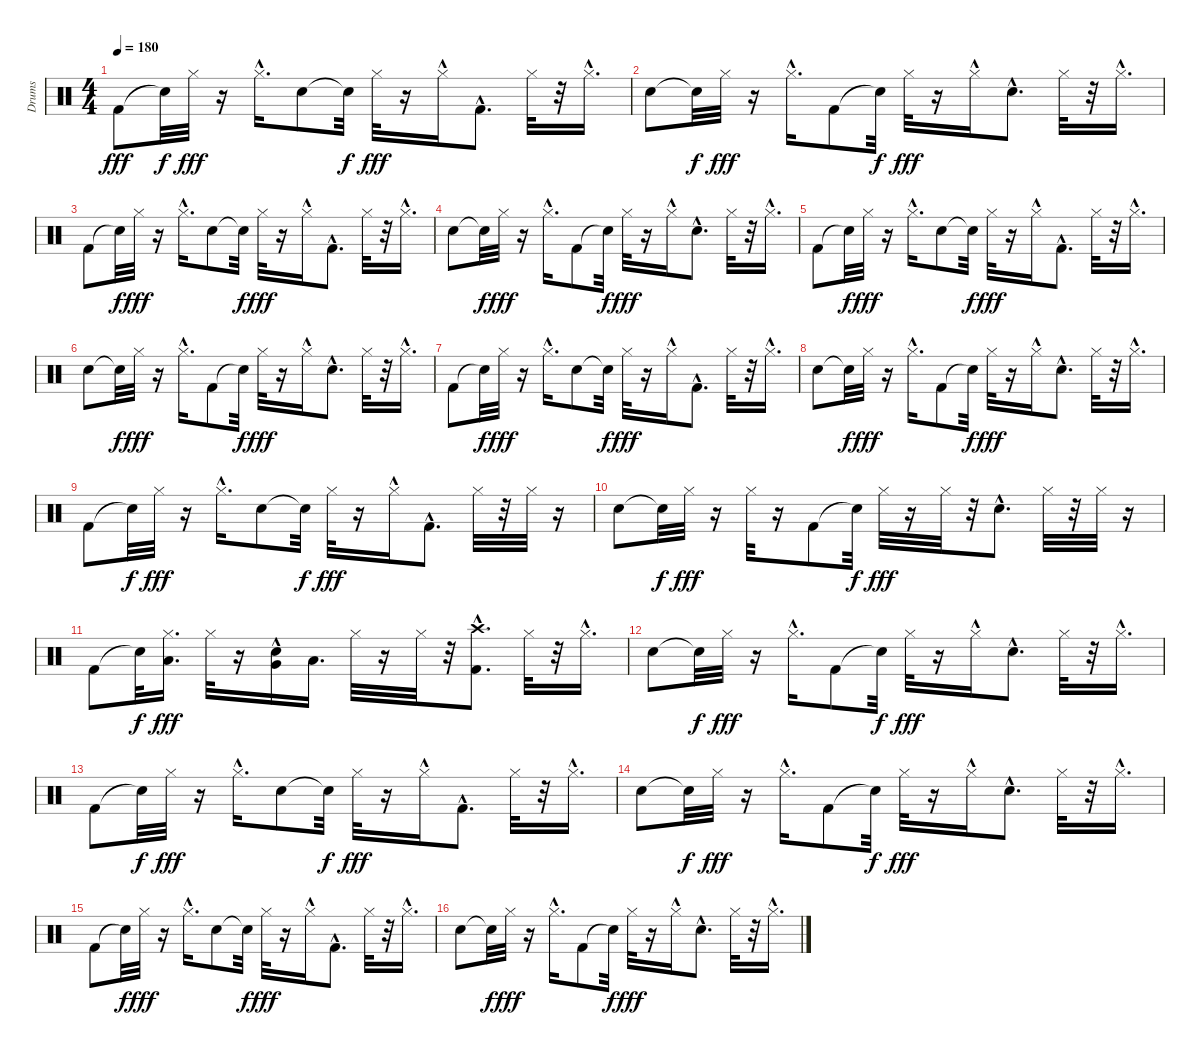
\track ("Drums" "Drums") {instrument percussion}
\staff {score}
\articulation defaults
\ts (4 4)
\tempo 180
\clef neutral
\ks c "Kick (hit) 2".8{dy fff} "Snare (hit)"{t}.32{dy f} "Hi-Hat (closed)".32{dy fff}
r.16 "Hi-Hat (closed)"{hac}.16{d} "Snare (hit) 2".8 "Snare (hit)"{t}.32{dy f} "Hi-Hat (closed)".32{dy fff} r.16 "Hi-Hat (closed)"{hac}.16 "Kick (hit) 2"{hac}.8{d} "Hi-Hat (closed)".32 r.32 "Hi-Hat (closed)"{hac}.16{d} |
"Snare (hit) 2".8 "Snare (hit)"{t}.32{dy f} "Hi-Hat (closed)".32{dy fff} r.16 "Hi-Hat (closed)"{hac}.16{d} "Kick (hit) 2".8 "Snare (hit)"{t}.32{dy f} "Hi-Hat (closed)".32{dy fff} r.16 "Hi-Hat (closed)"{hac}.16 "Snare (hit) 2"{hac}.8{d} "Hi-Hat (closed)".32 r.32 "Hi-Hat (closed)"{hac}.16{d} |
"Kick (hit) 2".8 "Snare (hit)"{t}.32{dy f} "Hi-Hat (closed)".32{dy fff} r.16 "Hi-Hat (closed)"{hac}.16{d} "Snare (hit) 2".8 "Snare (hit)"{t}.32{dy f} "Hi-Hat (closed)".32{dy fff} r.16 "Hi-Hat (closed)"{hac}.16 "Kick (hit) 2"{hac}.8{d} "Hi-Hat (closed)".32 r.32 "Hi-Hat (closed)"{hac}.16{d} |
"Snare (hit) 2".8 "Snare (hit)"{t}.32{dy f} "Hi-Hat (closed)".32{dy fff} r.16 "Hi-Hat (closed)"{hac}.16{d} "Kick (hit) 2".8 "Snare (hit)"{t}.32{dy f} "Hi-Hat (closed)".32{dy fff} r.16 "Hi-Hat (closed)"{hac}.16 "Snare (hit) 2"{hac}.8{d} "Hi-Hat (closed)".32 r.32 "Hi-Hat (closed)"{hac}.16{d} |
"Kick (hit) 2".8 "Snare (hit)"{t}.32{dy f} "Hi-Hat (closed)".32{dy fff} r.16 "Hi-Hat (closed)"{hac}.16{d} "Snare (hit) 2".8 "Snare (hit)"{t}.32{dy f} "Hi-Hat (closed)".32{dy fff} r.16 "Hi-Hat (closed)"{hac}.16 "Kick (hit) 2"{hac}.8{d} "Hi-Hat (closed)".32 r.32 "Hi-Hat (closed)"{hac}.16{d} |
"Snare (hit) 2".8 "Snare (hit)"{t}.32{dy f} "Hi-Hat (closed)".32{dy fff} r.16 "Hi-Hat (closed)"{hac}.16{d} "Kick (hit) 2".8 "Snare (hit)"{t}.32{dy f} "Hi-Hat (closed)".32{dy fff} r.16 "Hi-Hat (closed)"{hac}.16 "Snare (hit) 2"{hac}.8{d} "Hi-Hat (closed)".32 r.32 "Hi-Hat (closed)"{hac}.16{d} |
"Kick (hit) 2".8 "Snare (hit)"{t}.32{dy f} "Hi-Hat (closed)".32{dy fff} r.16 "Hi-Hat (closed)"{hac}.16{d} "Snare (hit) 2".8 "Snare (hit)"{t}.32{dy f} "Hi-Hat (closed)".32{dy fff} r.16 "Hi-Hat (closed)"{hac}.16 "Kick (hit) 2"{hac}.8{d} "Hi-Hat (closed)".32 r.32 "Hi-Hat (closed)"{hac}.16{d} |
"Snare (hit) 2".8 "Snare (hit)"{t}.32{dy f} "Hi-Hat (closed)".32{dy fff} r.16 "Hi-Hat (closed)"{hac}.16{d} "Kick (hit) 2".8 "Snare (hit)"{t}.32{dy f} "Hi-Hat (closed)".32{dy fff} r.16 "Hi-Hat (closed)"{hac}.16 "Snare (hit) 2"{hac}.8{d} "Hi-Hat (closed)".32 r.32 "Hi-Hat (closed)"{hac}.16{d} |
"Kick (hit) 2".8 "Snare (hit)"{t}.32{dy f} "Hi-Hat (closed)".32{dy fff} r.16 "Hi-Hat (closed)"{hac}.16{d} "Snare (hit) 2".8 "Snare (hit)"{t}.32{dy f} "Hi-Hat (closed)".32{dy fff} r.16 "Hi-Hat (closed)"{hac}.16 "Kick (hit) 2"{hac}.8{d} "Hi-Hat (closed)".32 r.32 "Hi-Hat (closed)".32 r.16 |
"Snare (hit) 2".8 "Snare (hit)"{t}.32{dy f} "Hi-Hat (closed)".32{dy fff} r.16 "Hi-Hat (closed)".32 r.16 "Kick (hit) 2".8 "Snare (hit)"{t}.32{dy f} "Hi-Hat (closed)".32{dy fff} r.16 "Hi-Hat (closed)".32 r.32 "Snare (hit) 2"{hac}.8{d} "Hi-Hat (closed)".32 r.32 "Hi-Hat (closed)".32 r.16 |
"Kick (hit) 2".8 "Snare (hit)"{t}.32{dy f} ("Hi-Hat (closed)" "Low Tom (hit)").16{d dy fff} "Hi-Hat (closed)".32 r.16 ("Snare (hit) 2"{hac} "Very Low Tom (hit)").16 "Low Floor Tom (hit)".16{d} "Hi-Hat (closed)".32 r.16 "Hi-Hat (closed)".32 r.32 ("Kick (hit) 2"{hac} "Crash high (hit)").8{d} "Hi-Hat (closed)".32 r.32 "Hi-Hat (closed)"{hac}.16{d} |
"Snare (hit) 2".8 "Snare (hit)"{t}.32{dy f} "Hi-Hat (closed)".32{dy fff} r.16 "Hi-Hat (closed)"{hac}.16{d} "Kick (hit) 2".8 "Snare (hit)"{t}.32{dy f} "Hi-Hat (closed)".32{dy fff} r.16 "Hi-Hat (closed)"{hac}.16 "Snare (hit) 2"{hac}.8{d} "Hi-Hat (closed)".32 r.32 "Hi-Hat (closed)"{hac}.16{d} |
"Kick (hit) 2".8 "Snare (hit)"{t}.32{dy f} "Hi-Hat (closed)".32{dy fff} r.16 "Hi-Hat (closed)"{hac}.16{d} "Snare (hit) 2".8 "Snare (hit)"{t}.32{dy f} "Hi-Hat (closed)".32{dy fff} r.16 "Hi-Hat (closed)"{hac}.16 "Kick (hit) 2"{hac}.8{d} "Hi-Hat (closed)".32 r.32 "Hi-Hat (closed)"{hac}.16{d} |
"Snare (hit) 2".8 "Snare (hit)"{t}.32{dy f} "Hi-Hat (closed)".32{dy fff} r.16 "Hi-Hat (closed)"{hac}.16{d} "Kick (hit) 2".8 "Snare (hit)"{t}.32{dy f} "Hi-Hat (closed)".32{dy fff} r.16 "Hi-Hat (closed)"{hac}.16 "Snare (hit) 2"{hac}.8{d} "Hi-Hat (closed)".32 r.32 "Hi-Hat (closed)"{hac}.16{d} |
"Kick (hit) 2".8 "Snare (hit)"{t}.32{dy f} "Hi-Hat (closed)".32{dy fff} r.16 "Hi-Hat (closed)"{hac}.16{d} "Snare (hit) 2".8 "Snare (hit)"{t}.32{dy f} "Hi-Hat (closed)".32{dy fff} r.16 "Hi-Hat (closed)"{hac}.16 "Kick (hit) 2"{hac}.8{d} "Hi-Hat (closed)".32 r.32 "Hi-Hat (closed)"{hac}.16{d} |
"Snare (hit) 2".8 "Snare (hit)"{t}.32{dy f} "Hi-Hat (closed)".32{dy fff} r.16 "Hi-Hat (closed)"{hac}.16{d} "Kick (hit) 2".8 "Snare (hit)"{t}.32{dy f} "Hi-Hat (closed)".32{dy fff} r.16 "Hi-Hat (closed)"{hac}.16 "Snare (hit) 2"{hac}.8{d} "Hi-Hat (closed)".32 r.32 "Hi-Hat (closed)"{hac}.16{d}
